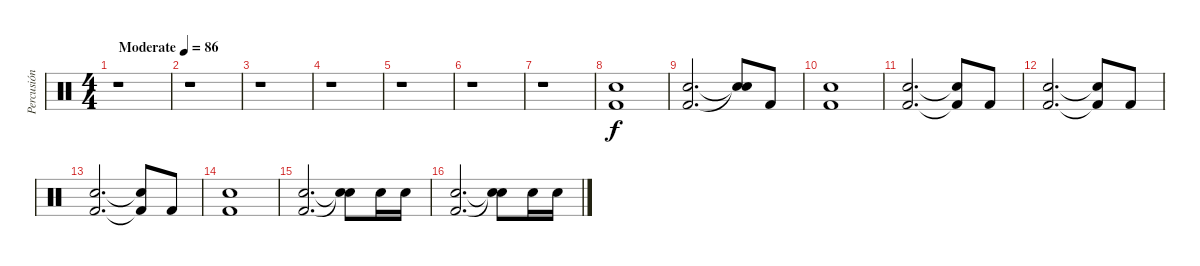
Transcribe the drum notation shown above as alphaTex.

\track ("Percusión" "Percusión") {instrument percussion}
\staff {score}
\articulation defaults
\ts (4 4)
\tempo (86 "Moderate")
\clef neutral
\ks c
r.1{dy f} |
r.1 |
r.1 |
r.1 |
r.1 |
r.1 |
r.1 |
("Electric Snare (hit)" "Kick (hit) 2").1 |
("Electric Snare (hit)" "Kick (hit) 2").2{d} ("Snare (hit)"{t} "Snare (hit)"{t}).8 "Kick (hit) 2".8 |
("Electric Snare (hit)" "Kick (hit) 2").1 |
("Electric Snare (hit)" "Kick (hit) 2").2{d} ("Snare (hit)"{t} "Kick (hit) 2"{t}).8 "Kick (hit) 2".8 |
("Electric Snare (hit)" "Kick (hit) 2").2{d} ("Snare (hit)"{t} "Kick (hit) 2"{t}).8 "Kick (hit) 2".8 |
("Electric Snare (hit)" "Kick (hit) 2").2{d} ("Snare (hit)"{t} "Kick (hit) 2"{t}).8 "Kick (hit) 2".8 |
("Electric Snare (hit)" "Kick (hit) 2").1 |
("Electric Snare (hit)" "Kick (hit) 2").2{d} ("Snare (hit)"{t} "Snare (hit)"{t}).8 "Electric Snare (hit)".16 "Electric Snare (hit)".16 |
("Electric Snare (hit)" "Kick (hit) 2").2{d} ("Snare (hit)"{t} "Snare (hit)"{t}).8 "Electric Snare (hit)".16 "Electric Snare (hit)".16
